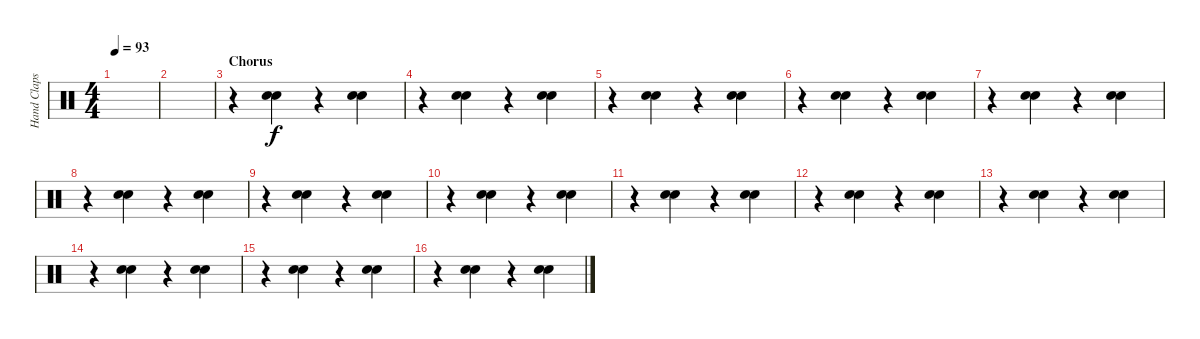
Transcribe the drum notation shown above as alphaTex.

\track ("Hand Claps" "Hand Claps") {instrument percussion}
\staff {score}
\articulation defaults
\ts (4 4)
\tempo 93
\clef neutral
\ks c
|
|
\section ("" "Chorus")
r.4 ("Hand Clap (hit)" "Hand Clap (hit)").4 r.4 ("Hand Clap (hit)" "Hand Clap (hit)").4 |
r.4 ("Hand Clap (hit)" "Hand Clap (hit)").4 r.4 ("Hand Clap (hit)" "Hand Clap (hit)").4 |
r.4 ("Hand Clap (hit)" "Hand Clap (hit)").4 r.4 ("Hand Clap (hit)" "Hand Clap (hit)").4 |
r.4 ("Hand Clap (hit)" "Hand Clap (hit)").4 r.4 ("Hand Clap (hit)" "Hand Clap (hit)").4 |
r.4 ("Hand Clap (hit)" "Hand Clap (hit)").4 r.4 ("Hand Clap (hit)" "Hand Clap (hit)").4 |
r.4 ("Hand Clap (hit)" "Hand Clap (hit)").4 r.4 ("Hand Clap (hit)" "Hand Clap (hit)").4 |
r.4 ("Hand Clap (hit)" "Hand Clap (hit)").4 r.4 ("Hand Clap (hit)" "Hand Clap (hit)").4 |
r.4 ("Hand Clap (hit)" "Hand Clap (hit)").4 r.4 ("Hand Clap (hit)" "Hand Clap (hit)").4 |
r.4 ("Hand Clap (hit)" "Hand Clap (hit)").4 r.4 ("Hand Clap (hit)" "Hand Clap (hit)").4 |
r.4 ("Hand Clap (hit)" "Hand Clap (hit)").4 r.4 ("Hand Clap (hit)" "Hand Clap (hit)").4 |
r.4 ("Hand Clap (hit)" "Hand Clap (hit)").4 r.4 ("Hand Clap (hit)" "Hand Clap (hit)").4 |
r.4 ("Hand Clap (hit)" "Hand Clap (hit)").4 r.4 ("Hand Clap (hit)" "Hand Clap (hit)").4 |
r.4 ("Hand Clap (hit)" "Hand Clap (hit)").4 r.4 ("Hand Clap (hit)" "Hand Clap (hit)").4 |
r.4 ("Hand Clap (hit)" "Hand Clap (hit)").4 r.4 ("Hand Clap (hit)" "Hand Clap (hit)").4
